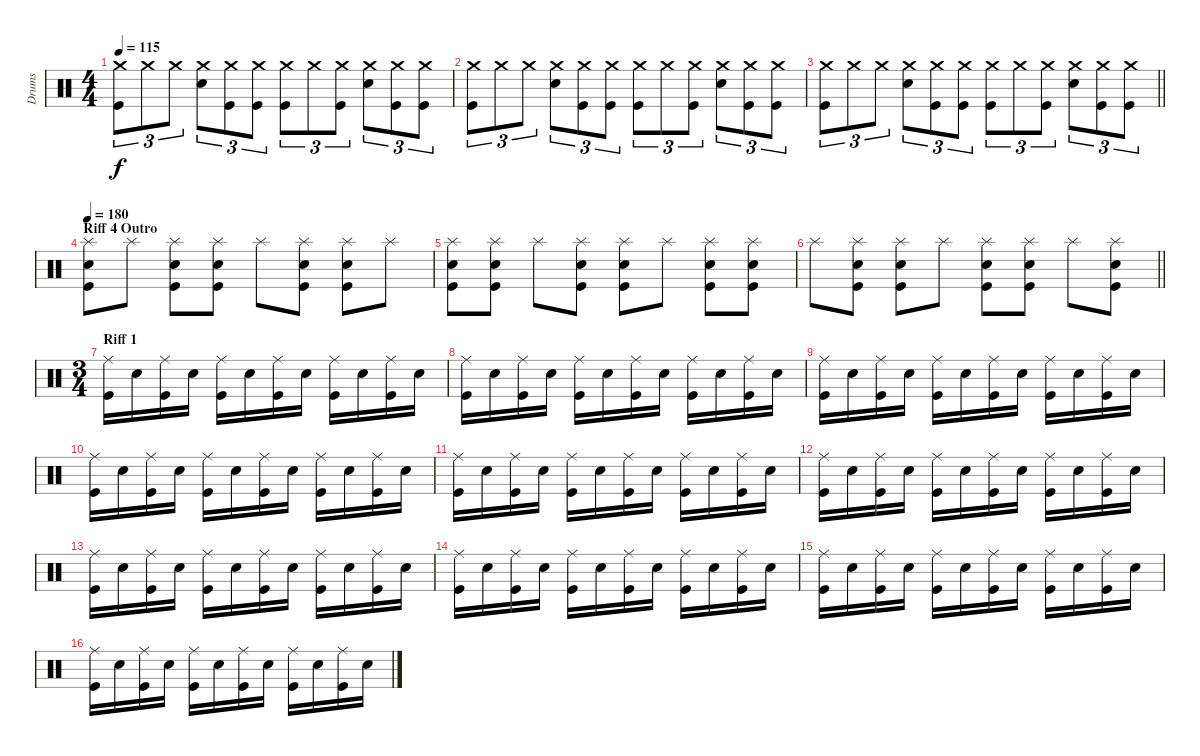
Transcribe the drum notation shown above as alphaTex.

\track ("Drums" "Drums") {instrument percussion}
\staff {score}
\articulation defaults
\ts (4 4)
\tempo 115
\clef neutral
\ks c
("Crash medium (hit)" "Kick (hit)").8{tu (3 2) dy f} "Crash medium (hit)".8{tu (3 2)} "Crash medium (hit)".8{tu (3 2)} ("Crash medium (hit)" "Electric Snare (hit)").8{tu (3 2)} ("Crash medium (hit)" "Kick (hit)").8{tu (3 2)} ("Crash medium (hit)" "Kick (hit)").8{tu (3 2)} ("Crash medium (hit)" "Kick (hit)").8{tu (3 2)} "Crash medium (hit)".8{tu (3 2)} ("Crash medium (hit)" "Kick (hit)").8{tu (3 2)} ("Crash medium (hit)" "Electric Snare (hit)").8{tu (3 2)} ("Crash medium (hit)" "Kick (hit)").8{tu (3 2)} ("Crash medium (hit)" "Kick (hit)").8{tu (3 2)} |
("Crash medium (hit)" "Kick (hit)").8{tu (3 2)} "Crash medium (hit)".8{tu (3 2)} "Crash medium (hit)".8{tu (3 2)} ("Crash medium (hit)" "Electric Snare (hit)").8{tu (3 2)} ("Crash medium (hit)" "Kick (hit)").8{tu (3 2)} ("Crash medium (hit)" "Kick (hit)").8{tu (3 2)} ("Crash medium (hit)" "Kick (hit)").8{tu (3 2)} "Crash medium (hit)".8{tu (3 2)} ("Crash medium (hit)" "Kick (hit)").8{tu (3 2)} ("Crash medium (hit)" "Electric Snare (hit)").8{tu (3 2)} ("Crash medium (hit)" "Kick (hit)").8{tu (3 2)} ("Crash medium (hit)" "Kick (hit)").8{tu (3 2)} |
\barLineRight lightlight
("Crash medium (hit)" "Kick (hit)").8{tu (3 2)} "Crash medium (hit)".8{tu (3 2)} "Crash medium (hit)".8{tu (3 2)} ("Crash medium (hit)" "Electric Snare (hit)").8{tu (3 2)} ("Crash medium (hit)" "Kick (hit)").8{tu (3 2)} ("Crash medium (hit)" "Kick (hit)").8{tu (3 2)} ("Crash medium (hit)" "Kick (hit)").8{tu (3 2)} "Crash medium (hit)".8{tu (3 2)} ("Crash medium (hit)" "Kick (hit)").8{tu (3 2)} ("Crash medium (hit)" "Electric Snare (hit)").8{tu (3 2)} ("Crash medium (hit)" "Kick (hit)").8{tu (3 2)} ("Crash medium (hit)" "Kick (hit)").8{tu (3 2)} |
\section ("" "Riff 4 Outro")
\tempo 180
("Splash (hit)" "Electric Snare (hit)" "Kick (hit)").8 "Splash (hit)".8 ("Splash (hit)" "Electric Snare (hit)" "Kick (hit)").8 ("Splash (hit)" "Electric Snare (hit)" "Kick (hit)").8 "Splash (hit)".8 ("Splash (hit)" "Electric Snare (hit)" "Kick (hit)").8 ("Splash (hit)" "Electric Snare (hit)" "Kick (hit)").8 "Splash (hit)".8 |
("Splash (hit)" "Electric Snare (hit)" "Kick (hit)").8 ("Splash (hit)" "Electric Snare (hit)" "Kick (hit)").8 "Splash (hit)".8 ("Splash (hit)" "Electric Snare (hit)" "Kick (hit)").8 ("Splash (hit)" "Electric Snare (hit)" "Kick (hit)").8 "Splash (hit)".8 ("Splash (hit)" "Electric Snare (hit)" "Kick (hit)").8 ("Splash (hit)" "Electric Snare (hit)" "Kick (hit)").8 |
\barLineRight lightlight "Splash (hit)".8
("Splash (hit)" "Electric Snare (hit)" "Kick (hit)").8 ("Splash (hit)" "Electric Snare (hit)" "Kick (hit)").8 "Splash (hit)".8 ("Splash (hit)" "Electric Snare (hit)" "Kick (hit)").8 ("Splash (hit)" "Electric Snare (hit)" "Kick (hit)").8 "Splash (hit)".8 ("Splash (hit)" "Electric Snare (hit)" "Kick (hit)").8 |
\ts (3 4)
\section ("" "Riff 1")
("Ride (middle)" "Kick (hit)").16 "Electric Snare (hit)".16 ("Ride (middle)" "Kick (hit)").16 "Electric Snare (hit)".16 ("Ride (middle)" "Kick (hit)").16 "Electric Snare (hit)".16 ("Ride (middle)" "Kick (hit)").16 "Electric Snare (hit)".16 ("Ride (middle)" "Kick (hit)").16 "Electric Snare (hit)".16 ("Ride (middle)" "Kick (hit)").16 "Electric Snare (hit)".16 |
("Ride (middle)" "Kick (hit)").16 "Electric Snare (hit)".16 ("Ride (middle)" "Kick (hit)").16 "Electric Snare (hit)".16 ("Ride (middle)" "Kick (hit)").16 "Electric Snare (hit)".16 ("Ride (middle)" "Kick (hit)").16 "Electric Snare (hit)".16 ("Ride (middle)" "Kick (hit)").16 "Electric Snare (hit)".16 ("Ride (middle)" "Kick (hit)").16 "Electric Snare (hit)".16 |
("Ride (middle)" "Kick (hit)").16 "Electric Snare (hit)".16 ("Ride (middle)" "Kick (hit)").16 "Electric Snare (hit)".16 ("Ride (middle)" "Kick (hit)").16 "Electric Snare (hit)".16 ("Ride (middle)" "Kick (hit)").16 "Electric Snare (hit)".16 ("Ride (middle)" "Kick (hit)").16 "Electric Snare (hit)".16 ("Ride (middle)" "Kick (hit)").16 "Electric Snare (hit)".16 |
("Ride (middle)" "Kick (hit)").16 "Electric Snare (hit)".16 ("Ride (middle)" "Kick (hit)").16 "Electric Snare (hit)".16 ("Ride (middle)" "Kick (hit)").16 "Electric Snare (hit)".16 ("Ride (middle)" "Kick (hit)").16 "Electric Snare (hit)".16 ("Ride (middle)" "Kick (hit)").16 "Electric Snare (hit)".16 ("Ride (middle)" "Kick (hit)").16 "Electric Snare (hit)".16 |
("Ride (middle)" "Kick (hit)").16 "Electric Snare (hit)".16 ("Ride (middle)" "Kick (hit)").16 "Electric Snare (hit)".16 ("Ride (middle)" "Kick (hit)").16 "Electric Snare (hit)".16 ("Ride (middle)" "Kick (hit)").16 "Electric Snare (hit)".16 ("Ride (middle)" "Kick (hit)").16 "Electric Snare (hit)".16 ("Ride (middle)" "Kick (hit)").16 "Electric Snare (hit)".16 |
("Ride (middle)" "Kick (hit)").16 "Electric Snare (hit)".16 ("Ride (middle)" "Kick (hit)").16 "Electric Snare (hit)".16 ("Ride (middle)" "Kick (hit)").16 "Electric Snare (hit)".16 ("Ride (middle)" "Kick (hit)").16 "Electric Snare (hit)".16 ("Ride (middle)" "Kick (hit)").16 "Electric Snare (hit)".16 ("Ride (middle)" "Kick (hit)").16 "Electric Snare (hit)".16 |
("Ride (middle)" "Kick (hit)").16 "Electric Snare (hit)".16 ("Ride (middle)" "Kick (hit)").16 "Electric Snare (hit)".16 ("Ride (middle)" "Kick (hit)").16 "Electric Snare (hit)".16 ("Ride (middle)" "Kick (hit)").16 "Electric Snare (hit)".16 ("Ride (middle)" "Kick (hit)").16 "Electric Snare (hit)".16 ("Ride (middle)" "Kick (hit)").16 "Electric Snare (hit)".16 |
("Ride (middle)" "Kick (hit)").16 "Electric Snare (hit)".16 ("Ride (middle)" "Kick (hit)").16 "Electric Snare (hit)".16 ("Ride (middle)" "Kick (hit)").16 "Electric Snare (hit)".16 ("Ride (middle)" "Kick (hit)").16 "Electric Snare (hit)".16 ("Ride (middle)" "Kick (hit)").16 "Electric Snare (hit)".16 ("Ride (middle)" "Kick (hit)").16 "Electric Snare (hit)".16 |
("Ride (middle)" "Kick (hit)").16 "Electric Snare (hit)".16 ("Ride (middle)" "Kick (hit)").16 "Electric Snare (hit)".16 ("Ride (middle)" "Kick (hit)").16 "Electric Snare (hit)".16 ("Ride (middle)" "Kick (hit)").16 "Electric Snare (hit)".16 ("Ride (middle)" "Kick (hit)").16 "Electric Snare (hit)".16 ("Ride (middle)" "Kick (hit)").16 "Electric Snare (hit)".16 |
("Ride (middle)" "Kick (hit)").16 "Electric Snare (hit)".16 ("Ride (middle)" "Kick (hit)").16 "Electric Snare (hit)".16 ("Ride (middle)" "Kick (hit)").16 "Electric Snare (hit)".16 ("Ride (middle)" "Kick (hit)").16 "Electric Snare (hit)".16 ("Ride (middle)" "Kick (hit)").16 "Electric Snare (hit)".16 ("Ride (middle)" "Kick (hit)").16 "Electric Snare (hit)".16
